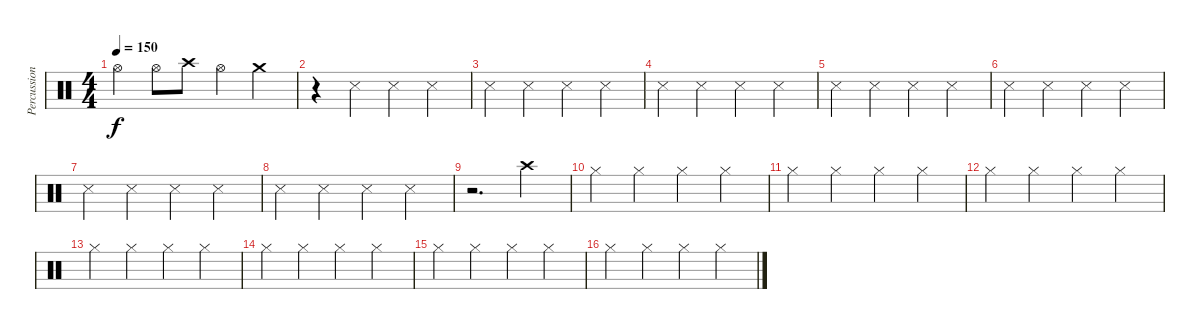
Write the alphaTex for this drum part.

\track ("Percussion Cymbals" "Percussion") {instrument percussion}
\staff {score}
\articulation defaults
\ts (4 4)
\tempo 150
\clef neutral
\ks c "Hi-Hat (open)".4{dy f} "Hi-Hat (open)".8 "Crash high (hit)".8 "Hi-Hat (open)".4 "Crash medium (hit)".4
|
r.4 "Snare (side stick) 3".4 "Snare (side stick) 3".4 "Snare (side stick) 3".4 |
"Snare (side stick) 3".4 "Snare (side stick) 3".4 "Snare (side stick) 3".4 "Snare (side stick) 3".4 |
"Snare (side stick) 3".4 "Snare (side stick) 3".4 "Snare (side stick) 3".4 "Snare (side stick) 3".4 |
"Snare (side stick) 3".4 "Snare (side stick) 3".4 "Snare (side stick) 3".4 "Snare (side stick) 3".4 |
"Snare (side stick) 3".4 "Snare (side stick) 3".4 "Snare (side stick) 3".4 "Snare (side stick) 3".4 |
"Snare (side stick) 3".4 "Snare (side stick) 3".4 "Snare (side stick) 3".4 "Snare (side stick) 3".4 |
"Snare (side stick) 3".4 "Snare (side stick) 3".4 "Snare (side stick) 3".4 "Snare (side stick) 3".4 |
r.2{d} "Crash high (hit)".4 |
"Hi-Hat (closed)".4 "Hi-Hat (closed)".4 "Hi-Hat (closed)".4 "Hi-Hat (closed)".4 |
"Hi-Hat (closed)".4 "Hi-Hat (closed)".4 "Hi-Hat (closed)".4 "Hi-Hat (closed)".4 |
"Hi-Hat (closed)".4 "Hi-Hat (closed)".4 "Hi-Hat (closed)".4 "Hi-Hat (closed)".4 |
"Hi-Hat (closed)".4 "Hi-Hat (closed)".4 "Hi-Hat (closed)".4 "Hi-Hat (closed)".4 |
"Hi-Hat (closed)".4 "Hi-Hat (closed)".4 "Hi-Hat (closed)".4 "Hi-Hat (closed)".4 |
"Hi-Hat (closed)".4 "Hi-Hat (closed)".4 "Hi-Hat (closed)".4 "Hi-Hat (closed)".4 |
"Hi-Hat (closed)".4 "Hi-Hat (closed)".4 "Hi-Hat (closed)".4 "Hi-Hat (closed)".4
